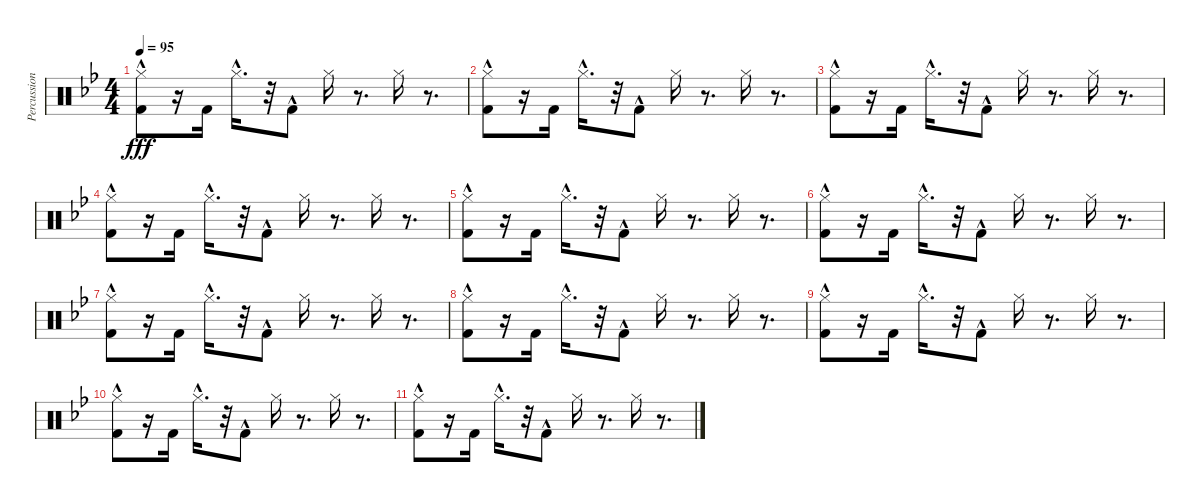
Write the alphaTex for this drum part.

\track ("Percussions" "Percussion") {instrument percussion}
\staff {score}
\articulation defaults
\ts (4 4)
\tempo 95
\clef neutral
\ks bb
("Kick (hit) 2"{hac} "Hi-Hat (closed)").8{dy fff} r.16 "Kick (hit) 2".16 "Hi-Hat (closed)"{hac}.16{d} r.32 "Kick (hit) 2"{hac}.8 "Hi-Hat (closed)".16 r.8{d} "Hi-Hat (closed)".16 r.8{d} |
("Kick (hit) 2"{hac} "Hi-Hat (closed)").8 r.16 "Kick (hit) 2".16 "Hi-Hat (closed)"{hac}.16{d} r.32 "Kick (hit) 2"{hac}.8 "Hi-Hat (closed)".16 r.8{d} "Hi-Hat (closed)".16 r.8{d} |
("Kick (hit) 2"{hac} "Hi-Hat (closed)").8 r.16 "Kick (hit) 2".16 "Hi-Hat (closed)"{hac}.16{d} r.32 "Kick (hit) 2"{hac}.8 "Hi-Hat (closed)".16 r.8{d} "Hi-Hat (closed)".16 r.8{d} |
("Kick (hit) 2"{hac} "Hi-Hat (closed)").8 r.16 "Kick (hit) 2".16 "Hi-Hat (closed)"{hac}.16{d} r.32 "Kick (hit) 2"{hac}.8 "Hi-Hat (closed)".16 r.8{d} "Hi-Hat (closed)".16 r.8{d} |
("Kick (hit) 2"{hac} "Hi-Hat (closed)").8 r.16 "Kick (hit) 2".16 "Hi-Hat (closed)"{hac}.16{d} r.32 "Kick (hit) 2"{hac}.8 "Hi-Hat (closed)".16 r.8{d} "Hi-Hat (closed)".16 r.8{d} |
("Kick (hit) 2"{hac} "Hi-Hat (closed)").8 r.16 "Kick (hit) 2".16 "Hi-Hat (closed)"{hac}.16{d} r.32 "Kick (hit) 2"{hac}.8 "Hi-Hat (closed)".16 r.8{d} "Hi-Hat (closed)".16 r.8{d} |
("Kick (hit) 2"{hac} "Hi-Hat (closed)").8 r.16 "Kick (hit) 2".16 "Hi-Hat (closed)"{hac}.16{d} r.32 "Kick (hit) 2"{hac}.8 "Hi-Hat (closed)".16 r.8{d} "Hi-Hat (closed)".16 r.8{d} |
("Kick (hit) 2"{hac} "Hi-Hat (closed)").8 r.16 "Kick (hit) 2".16 "Hi-Hat (closed)"{hac}.16{d} r.32 "Kick (hit) 2"{hac}.8 "Hi-Hat (closed)".16 r.8{d} "Hi-Hat (closed)".16 r.8{d} |
("Kick (hit) 2"{hac} "Hi-Hat (closed)").8 r.16 "Kick (hit) 2".16 "Hi-Hat (closed)"{hac}.16{d} r.32 "Kick (hit) 2"{hac}.8 "Hi-Hat (closed)".16 r.8{d} "Hi-Hat (closed)".16 r.8{d} |
("Kick (hit) 2"{hac} "Hi-Hat (closed)").8 r.16 "Kick (hit) 2".16 "Hi-Hat (closed)"{hac}.16{d} r.32 "Kick (hit) 2"{hac}.8 "Hi-Hat (closed)".16 r.8{d} "Hi-Hat (closed)".16 r.8{d} |
("Kick (hit) 2"{hac} "Hi-Hat (closed)").8 r.16 "Kick (hit) 2".16 "Hi-Hat (closed)"{hac}.16{d} r.32 "Kick (hit) 2"{hac}.8 "Hi-Hat (closed)".16 r.8{d} "Hi-Hat (closed)".16 r.8{d}
